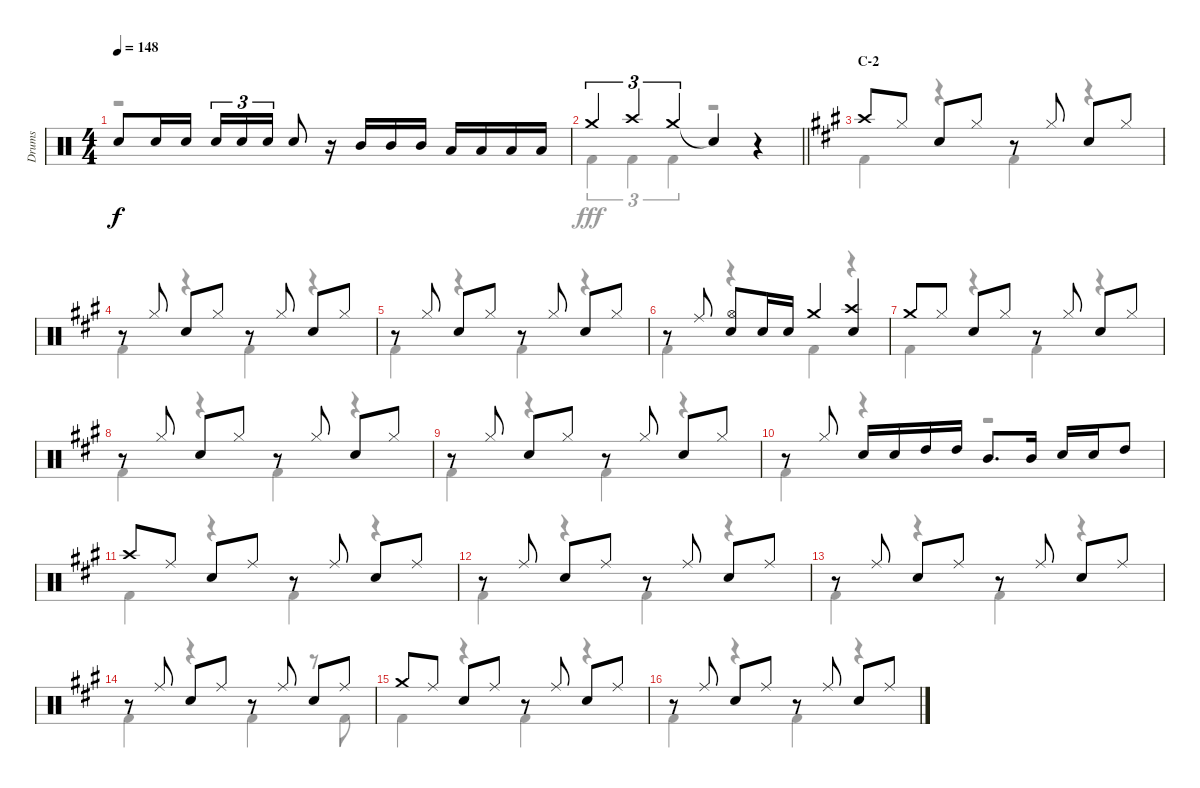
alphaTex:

\track ("Drums" "Drums") {instrument percussion}
\staff {score}
\articulation defaults
\voice
\ts (4 4)
\tempo 148
\clef neutral
\ks c "Snare (hit) 2".8{dy f} "Snare (hit) 2".16 "Snare (hit) 2".16 "Snare (hit) 2".16{tu (3 2)} "Snare (hit) 2".16{tu (3 2)} "Snare (hit) 2".16{tu (3 2)} "Snare (hit) 2".8
r.16 "Mid Tom (hit)".16 "Mid Tom (hit)".16 "Mid Tom (hit)".16 "Low Tom (hit)".16 "Low Tom (hit)".16 "Low Tom (hit)".16 "Low Tom (hit)".16 |
\barLineRight lightlight "Crash medium (hit)".4{tu (3 2)} "Crash high (hit)".4{tu (3 2)} "Crash medium (hit)".4{tu (3 2)} "Snare (hit)"{t}.4
r.4 |
\section ("" "C-2")
\ks a "Crash high (hit)".8 "Hi-Hat (closed)".8 "Snare (hit) 2".8 "Hi-Hat (closed)".8
r.8 "Hi-Hat (closed)".8 "Snare (hit) 2".8 "Hi-Hat (closed)".8 |
r.8 "Hi-Hat (closed)".8 "Snare (hit) 2".8 "Hi-Hat (closed)".8 r.8 "Hi-Hat (closed)".8 "Snare (hit) 2".8 "Hi-Hat (closed)".8 |
r.8 "Hi-Hat (closed)".8 "Snare (hit) 2".8 "Hi-Hat (closed)".8 r.8 "Hi-Hat (closed)".8 "Snare (hit) 2".8 "Hi-Hat (closed)".8 |
r.8 "Ride (middle)".8 ("Hi-Hat (open)" "Snare (hit) 2").8 "Snare (hit) 2".16 "Snare (hit) 2".16 "Crash medium (hit)".4 ("Crash high (hit)" "Snare (hit) 2").4 |
"Crash medium (hit)".8 "Hi-Hat (closed)".8 "Snare (hit) 2".8 "Hi-Hat (closed)".8 r.8 "Hi-Hat (closed)".8 "Snare (hit) 2".8 "Hi-Hat (closed)".8 |
r.8 "Hi-Hat (closed)".8 "Snare (hit) 2".8 "Hi-Hat (closed)".8 r.8 "Hi-Hat (closed)".8 "Snare (hit) 2".8 "Hi-Hat (closed)".8 |
r.8 "Hi-Hat (closed)".8 "Snare (hit) 2".8 "Hi-Hat (closed)".8 r.8 "Hi-Hat (closed)".8 "Snare (hit) 2".8 "Hi-Hat (closed)".8 |
r.8 "Hi-Hat (closed)".8 "Snare (hit) 2".16 "Snare (hit) 2".16 "High Tom (hit)".16 "High Tom (hit)".16 "Mid Tom (hit)".8{d} "Mid Tom (hit)".16 "Snare (hit) 2".16 "Snare (hit) 2".16 "High Tom (hit)".8 |
"Crash high (hit)".8 "Ride (middle)".8 "Snare (hit) 2".8 "Ride (middle)".8 r.8 "Ride (middle)".8 "Snare (hit) 2".8 "Ride (middle)".8 |
r.8 "Ride (middle)".8 "Snare (hit) 2".8 "Ride (middle)".8 r.8 "Ride (middle)".8 "Snare (hit) 2".8 "Ride (middle)".8 |
r.8 "Ride (middle)".8 "Snare (hit) 2".8 "Ride (middle)".8 r.8 "Ride (middle)".8 "Snare (hit) 2".8 "Ride (middle)".8 |
r.8 "Ride (middle)".8 "Snare (hit) 2".8 "Ride (middle)".8 r.8 "Ride (middle)".8 "Snare (hit) 2".8 "Ride (middle)".8 |
"Crash medium (hit)".8 "Ride (middle)".8 "Snare (hit) 2".8 "Ride (middle)".8 r.8 "Ride (middle)".8 "Snare (hit) 2".8 "Ride (middle)".8 |
r.8 "Ride (middle)".8 "Snare (hit) 2".8 "Ride (middle)".8 r.8 "Ride (middle)".8 "Snare (hit) 2".8 "Ride (middle)".8
\voice
\clef neutral
\ottava regular
\simile none
\ks c
r.1{dy fff} |
\barLineRight lightlight "Kick (hit) 2".4{tu (3 2)} "Kick (hit) 2".4{tu (3 2)} "Kick (hit) 2".4{tu (3 2)}
r.2 |
\ks a "Kick (hit) 2".4
r.4 "Kick (hit) 2".4 r.4 |
"Kick (hit) 2".4 r.4 "Kick (hit) 2".4 r.4 |
"Kick (hit) 2".4 r.4 "Kick (hit) 2".4 r.4 |
"Kick (hit) 2".4 r.4 "Kick (hit) 2".4 r.4 |
"Kick (hit) 2".4 r.4 "Kick (hit) 2".4 r.4 |
"Kick (hit) 2".4 r.4 "Kick (hit) 2".4 r.4 |
"Kick (hit) 2".4 r.4 "Kick (hit) 2".4 r.4 |
"Kick (hit) 2".4 r.4 r.2 |
"Kick (hit) 2".4 r.4 "Kick (hit) 2".4 r.4 |
"Kick (hit) 2".4 r.4 "Kick (hit) 2".4 r.4 |
"Kick (hit) 2".4 r.4 "Kick (hit) 2".4 r.4 |
"Kick (hit) 2".4 r.4 "Kick (hit) 2".4 r.8 "Kick (hit) 2".8 |
"Kick (hit) 2".4 r.4 "Kick (hit) 2".4 r.4 |
"Kick (hit) 2".4 r.4 "Kick (hit) 2".4 r.4
